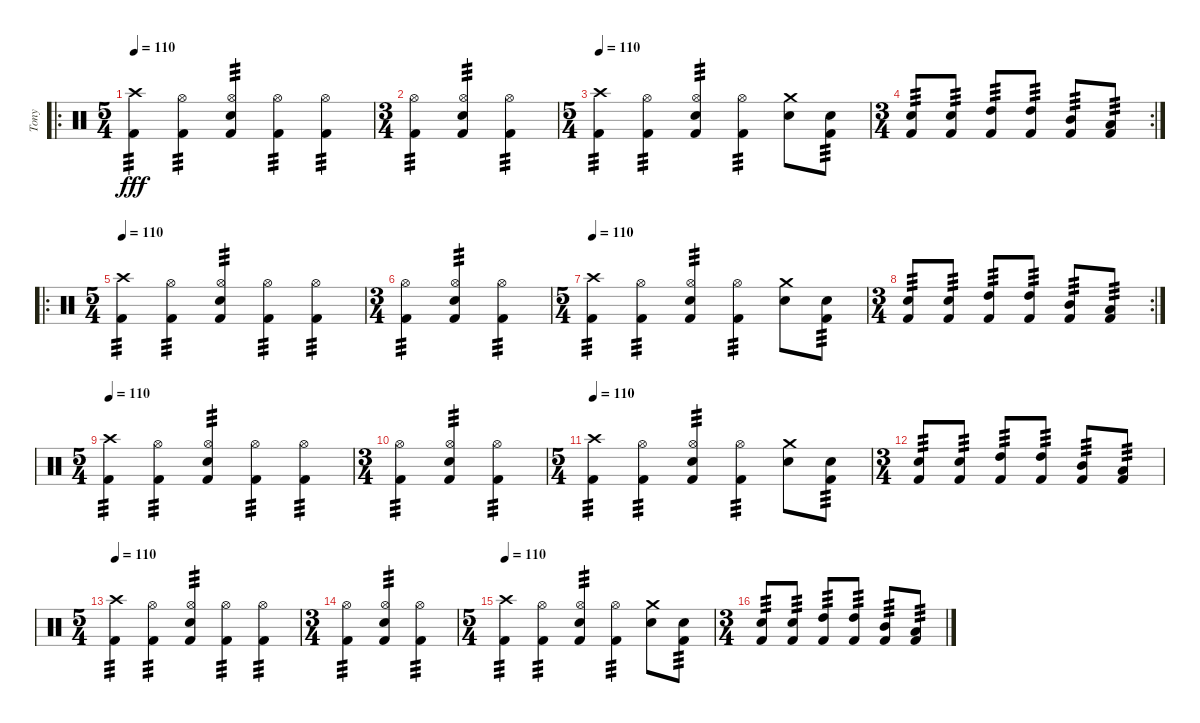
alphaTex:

\track ("Tony" "Tony") {instrument percussion}
\staff {score}
\articulation defaults
\ro
\ts (5 4)
\tempo 110
\clef neutral
\ks c
("Crash high (hit)" "Kick (hit) 2").4{tp 3 dy fff} ("Hi-Hat (open)" "Kick (hit) 2").4{tp 3} ("Hi-Hat (open)" "Snare (hit) 2" "Kick (hit) 2").4{tp 3} ("Hi-Hat (open)" "Kick (hit) 2").4{tp 3} ("Hi-Hat (open)" "Kick (hit) 2").4{tp 3} |
\ts (3 4)
("Hi-Hat (open)" "Kick (hit) 2").4{tp 3} ("Hi-Hat (open)" "Snare (hit) 2" "Kick (hit) 2").4{tp 3} ("Hi-Hat (open)" "Kick (hit) 2").4{tp 3} |
\ts (5 4)
\tempo 110
("Crash high (hit)" "Kick (hit) 2").4{tp 3} ("Hi-Hat (open)" "Kick (hit) 2").4{tp 3} ("Hi-Hat (open)" "Snare (hit) 2" "Kick (hit) 2").4{tp 3} ("Hi-Hat (open)" "Kick (hit) 2").4{tp 3} ("Crash medium (hit)" "Snare (hit) 2").8 ("Snare (hit) 2" "Kick (hit) 2").8{tp 3} |
\rc 2
\ts (3 4)
("Snare (hit) 2" "Kick (hit) 2").8{tp 3} ("Snare (hit) 2" "Kick (hit) 2").8{tp 3} ("High Tom (hit)" "Kick (hit) 2").8{tp 3} ("High Tom (hit)" "Kick (hit) 2").8{tp 3} ("Mid Tom (hit)" "Kick (hit) 2").8{tp 3} ("Low Tom (hit)" "Kick (hit) 2").8{tp 3} |
\ro
\ts (5 4)
\tempo 110
("Crash high (hit)" "Kick (hit) 2").4{tp 3} ("Hi-Hat (open)" "Kick (hit) 2").4{tp 3} ("Hi-Hat (open)" "Snare (hit) 2" "Kick (hit) 2").4{tp 3} ("Hi-Hat (open)" "Kick (hit) 2").4{tp 3} ("Hi-Hat (open)" "Kick (hit) 2").4{tp 3} |
\ts (3 4)
("Hi-Hat (open)" "Kick (hit) 2").4{tp 3} ("Hi-Hat (open)" "Snare (hit) 2" "Kick (hit) 2").4{tp 3} ("Hi-Hat (open)" "Kick (hit) 2").4{tp 3} |
\ts (5 4)
\tempo 110
("Crash high (hit)" "Kick (hit) 2").4{tp 3} ("Hi-Hat (open)" "Kick (hit) 2").4{tp 3} ("Hi-Hat (open)" "Snare (hit) 2" "Kick (hit) 2").4{tp 3} ("Hi-Hat (open)" "Kick (hit) 2").4{tp 3} ("Crash medium (hit)" "Snare (hit) 2").8 ("Snare (hit) 2" "Kick (hit) 2").8{tp 3} |
\rc 2
\ts (3 4)
("Snare (hit) 2" "Kick (hit) 2").8{tp 3} ("Snare (hit) 2" "Kick (hit) 2").8{tp 3} ("High Tom (hit)" "Kick (hit) 2").8{tp 3} ("High Tom (hit)" "Kick (hit) 2").8{tp 3} ("Mid Tom (hit)" "Kick (hit) 2").8{tp 3} ("Low Tom (hit)" "Kick (hit) 2").8{tp 3} |
\ts (5 4)
\tempo 110
("Crash high (hit)" "Kick (hit) 2").4{tp 3 volume 14} ("Hi-Hat (open)" "Kick (hit) 2").4{tp 3} ("Hi-Hat (open)" "Snare (hit) 2" "Kick (hit) 2").4{tp 3} ("Hi-Hat (open)" "Kick (hit) 2").4{tp 3} ("Hi-Hat (open)" "Kick (hit) 2").4{tp 3} |
\ts (3 4)
("Hi-Hat (open)" "Kick (hit) 2").4{tp 3} ("Hi-Hat (open)" "Snare (hit) 2" "Kick (hit) 2").4{tp 3} ("Hi-Hat (open)" "Kick (hit) 2").4{tp 3} |
\ts (5 4)
\tempo 110
("Crash high (hit)" "Kick (hit) 2").4{tp 3} ("Hi-Hat (open)" "Kick (hit) 2").4{tp 3} ("Hi-Hat (open)" "Snare (hit) 2" "Kick (hit) 2").4{tp 3} ("Hi-Hat (open)" "Kick (hit) 2").4{tp 3} ("Crash medium (hit)" "Snare (hit) 2").8 ("Snare (hit) 2" "Kick (hit) 2").8{tp 3} |
\ts (3 4)
("Snare (hit) 2" "Kick (hit) 2").8{tp 3} ("Snare (hit) 2" "Kick (hit) 2").8{tp 3} ("High Tom (hit)" "Kick (hit) 2").8{tp 3} ("High Tom (hit)" "Kick (hit) 2").8{tp 3} ("Mid Tom (hit)" "Kick (hit) 2").8{tp 3} ("Low Tom (hit)" "Kick (hit) 2").8{tp 3} |
\ts (5 4)
\tempo 110
("Crash high (hit)" "Kick (hit) 2").4{tp 3 volume 12} ("Hi-Hat (open)" "Kick (hit) 2").4{tp 3} ("Hi-Hat (open)" "Snare (hit) 2" "Kick (hit) 2").4{tp 3} ("Hi-Hat (open)" "Kick (hit) 2").4{tp 3} ("Hi-Hat (open)" "Kick (hit) 2").4{tp 3} |
\ts (3 4)
("Hi-Hat (open)" "Kick (hit) 2").4{tp 3} ("Hi-Hat (open)" "Snare (hit) 2" "Kick (hit) 2").4{tp 3} ("Hi-Hat (open)" "Kick (hit) 2").4{tp 3} |
\ts (5 4)
\tempo 110
("Crash high (hit)" "Kick (hit) 2").4{tp 3} ("Hi-Hat (open)" "Kick (hit) 2").4{tp 3} ("Hi-Hat (open)" "Snare (hit) 2" "Kick (hit) 2").4{tp 3} ("Hi-Hat (open)" "Kick (hit) 2").4{tp 3} ("Crash medium (hit)" "Snare (hit) 2").8 ("Snare (hit) 2" "Kick (hit) 2").8{tp 3} |
\ts (3 4)
("Snare (hit) 2" "Kick (hit) 2").8{tp 3} ("Snare (hit) 2" "Kick (hit) 2").8{tp 3} ("High Tom (hit)" "Kick (hit) 2").8{tp 3} ("High Tom (hit)" "Kick (hit) 2").8{tp 3} ("Mid Tom (hit)" "Kick (hit) 2").8{tp 3} ("Low Tom (hit)" "Kick (hit) 2").8{tp 3}
